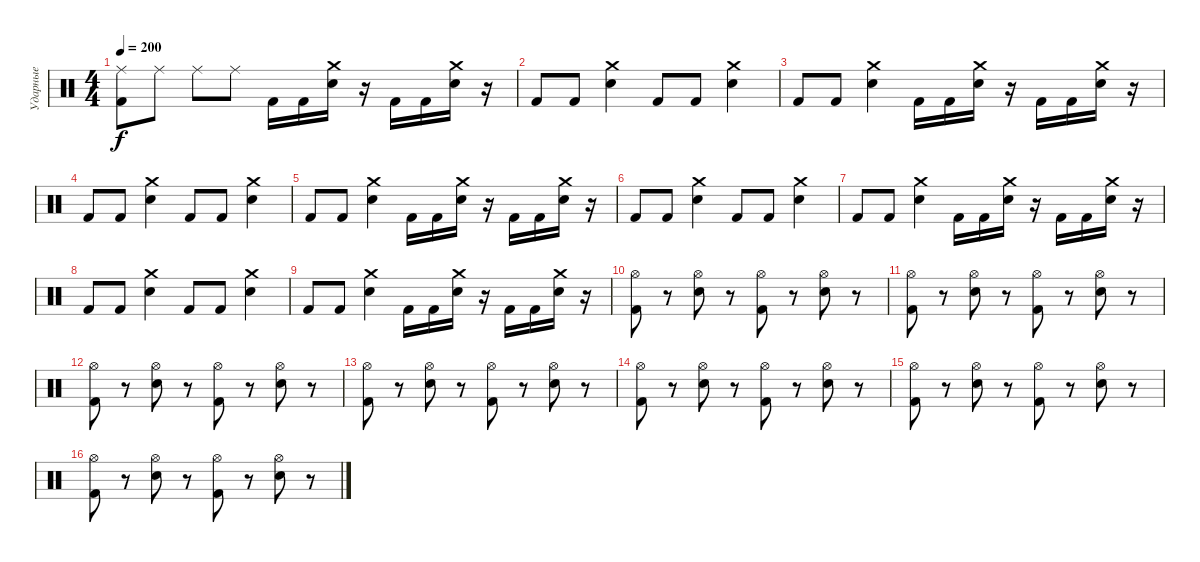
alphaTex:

\track ("Ударные" "Ударные") {instrument percussion}
\staff {score}
\articulation defaults
\ts (4 4)
\tempo 200
\clef neutral
\ks c
("Ride (middle)" "Kick (hit) 2").8{dy f} "Ride (middle)".8 "Ride (middle)".8 "Ride (middle)".8 "Kick (hit) 2".16 "Kick (hit) 2".16 ("Snare (hit) 2" "Crash medium (hit)").16 r.16 "Kick (hit) 2".16 "Kick (hit) 2".16 ("Snare (hit) 2" "Crash medium (hit)").16 r.16 |
"Kick (hit) 2".8 "Kick (hit) 2".8 ("Crash medium (hit)" "Snare (hit) 2").4 "Kick (hit) 2".8 "Kick (hit) 2".8 ("Crash medium (hit)" "Snare (hit) 2").4 |
"Kick (hit) 2".8 "Kick (hit) 2".8 ("Crash medium (hit)" "Snare (hit) 2").4 "Kick (hit) 2".16 "Kick (hit) 2".16 ("Snare (hit) 2" "Crash medium (hit)").16 r.16 "Kick (hit) 2".16 "Kick (hit) 2".16 ("Snare (hit) 2" "Crash medium (hit)").16 r.16 |
"Kick (hit) 2".8 "Kick (hit) 2".8 ("Crash medium (hit)" "Snare (hit) 2").4 "Kick (hit) 2".8 "Kick (hit) 2".8 ("Crash medium (hit)" "Snare (hit) 2").4 |
"Kick (hit) 2".8 "Kick (hit) 2".8 ("Crash medium (hit)" "Snare (hit) 2").4 "Kick (hit) 2".16 "Kick (hit) 2".16 ("Snare (hit) 2" "Crash medium (hit)").16 r.16 "Kick (hit) 2".16 "Kick (hit) 2".16 ("Snare (hit) 2" "Crash medium (hit)").16 r.16 |
"Kick (hit) 2".8 "Kick (hit) 2".8 ("Crash medium (hit)" "Snare (hit) 2").4 "Kick (hit) 2".8 "Kick (hit) 2".8 ("Crash medium (hit)" "Snare (hit) 2").4 |
"Kick (hit) 2".8 "Kick (hit) 2".8 ("Crash medium (hit)" "Snare (hit) 2").4 "Kick (hit) 2".16 "Kick (hit) 2".16 ("Snare (hit) 2" "Crash medium (hit)").16 r.16 "Kick (hit) 2".16 "Kick (hit) 2".16 ("Snare (hit) 2" "Crash medium (hit)").16 r.16 |
"Kick (hit) 2".8 "Kick (hit) 2".8 ("Crash medium (hit)" "Snare (hit) 2").4 "Kick (hit) 2".8 "Kick (hit) 2".8 ("Crash medium (hit)" "Snare (hit) 2").4 |
"Kick (hit) 2".8 "Kick (hit) 2".8 ("Crash medium (hit)" "Snare (hit) 2").4 "Kick (hit) 2".16 "Kick (hit) 2".16 ("Snare (hit) 2" "Crash medium (hit)").16 r.16 "Kick (hit) 2".16 "Kick (hit) 2".16 ("Snare (hit) 2" "Crash medium (hit)").16 r.16 |
("Hi-Hat (open)" "Kick (hit) 2").8 r.8 ("Hi-Hat (open)" "Snare (hit) 2").8 r.8 ("Hi-Hat (open)" "Kick (hit) 2").8 r.8 ("Hi-Hat (open)" "Snare (hit) 2").8 r.8 |
("Hi-Hat (open)" "Kick (hit) 2").8 r.8 ("Hi-Hat (open)" "Snare (hit) 2").8 r.8 ("Hi-Hat (open)" "Kick (hit) 2").8 r.8 ("Hi-Hat (open)" "Snare (hit) 2").8 r.8 |
("Hi-Hat (open)" "Kick (hit) 2").8 r.8 ("Hi-Hat (open)" "Snare (hit) 2").8 r.8 ("Hi-Hat (open)" "Kick (hit) 2").8 r.8 ("Hi-Hat (open)" "Snare (hit) 2").8 r.8 |
("Hi-Hat (open)" "Kick (hit) 2").8 r.8 ("Hi-Hat (open)" "Snare (hit) 2").8 r.8 ("Hi-Hat (open)" "Kick (hit) 2").8 r.8 ("Hi-Hat (open)" "Snare (hit) 2").8 r.8 |
("Hi-Hat (open)" "Kick (hit) 2").8 r.8 ("Hi-Hat (open)" "Snare (hit) 2").8 r.8 ("Hi-Hat (open)" "Kick (hit) 2").8 r.8 ("Hi-Hat (open)" "Snare (hit) 2").8 r.8 |
("Hi-Hat (open)" "Kick (hit) 2").8 r.8 ("Hi-Hat (open)" "Snare (hit) 2").8 r.8 ("Hi-Hat (open)" "Kick (hit) 2").8 r.8 ("Hi-Hat (open)" "Snare (hit) 2").8 r.8 |
("Hi-Hat (open)" "Kick (hit) 2").8 r.8 ("Hi-Hat (open)" "Snare (hit) 2").8 r.8 ("Hi-Hat (open)" "Kick (hit) 2").8 r.8 ("Hi-Hat (open)" "Snare (hit) 2").8 r.8
